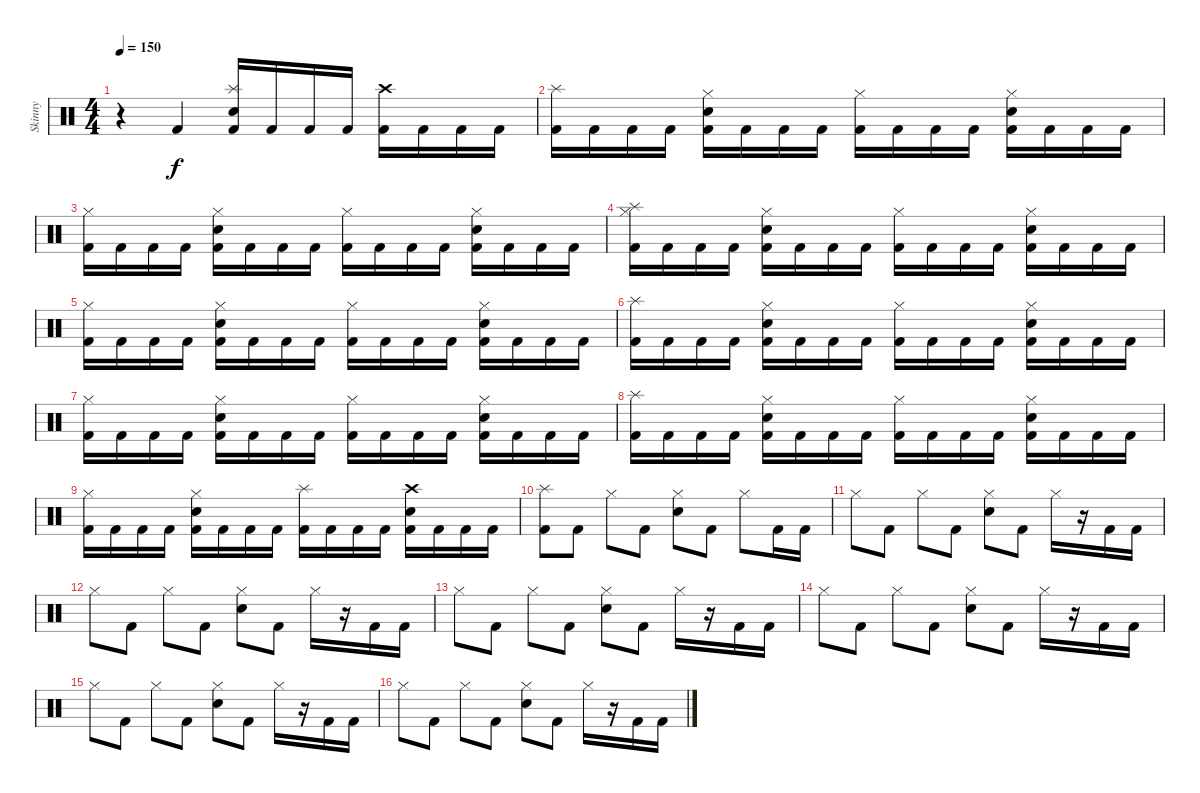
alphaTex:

\track ("Skinny" "Skinny") {instrument percussion}
\staff {score}
\articulation defaults
\ts (4 4)
\tempo 150
\clef neutral
\ks c
r.4{dy f} "Kick (hit) 2".4 ("Splash (hit)" "Electric Snare (hit)" "Kick (hit) 2").16 "Kick (hit) 2".16 "Kick (hit) 2".16 "Kick (hit) 2".16 ("Crash high (hit)" "Kick (hit) 2").16 "Kick (hit) 2".16 "Kick (hit) 2".16 "Kick (hit) 2".16 |
("Splash (hit)" "Kick (hit) 2").16 "Kick (hit) 2".16 "Kick (hit) 2".16 "Kick (hit) 2".16 ("Hi-Hat (closed)" "Electric Snare (hit)" "Kick (hit) 2").16 "Kick (hit) 2".16 "Kick (hit) 2".16 "Kick (hit) 2".16 ("Hi-Hat (closed)" "Kick (hit) 2").16 "Kick (hit) 2".16 "Kick (hit) 2".16 "Kick (hit) 2".16 ("Hi-Hat (closed)" "Electric Snare (hit)" "Kick (hit) 2").16 "Kick (hit) 2".16 "Kick (hit) 2".16 "Kick (hit) 2".16 |
("Hi-Hat (closed)" "Kick (hit) 2").16 "Kick (hit) 2".16 "Kick (hit) 2".16 "Kick (hit) 2".16 ("Hi-Hat (closed)" "Electric Snare (hit)" "Kick (hit) 2").16 "Kick (hit) 2".16 "Kick (hit) 2".16 "Kick (hit) 2".16 ("Hi-Hat (closed)" "Kick (hit) 2").16 "Kick (hit) 2".16 "Kick (hit) 2".16 "Kick (hit) 2".16 ("Hi-Hat (closed)" "Electric Snare (hit)" "Kick (hit) 2").16 "Kick (hit) 2".16 "Kick (hit) 2".16 "Kick (hit) 2".16 |
("Splash (hit)" "Hi-Hat (closed)" "Kick (hit) 2").16 "Kick (hit) 2".16 "Kick (hit) 2".16 "Kick (hit) 2".16 ("Hi-Hat (closed)" "Electric Snare (hit)" "Kick (hit) 2").16 "Kick (hit) 2".16 "Kick (hit) 2".16 "Kick (hit) 2".16 ("Hi-Hat (closed)" "Kick (hit) 2").16 "Kick (hit) 2".16 "Kick (hit) 2".16 "Kick (hit) 2".16 ("Hi-Hat (closed)" "Electric Snare (hit)" "Kick (hit) 2").16 "Kick (hit) 2".16 "Kick (hit) 2".16 "Kick (hit) 2".16 |
("Hi-Hat (closed)" "Kick (hit) 2").16 "Kick (hit) 2".16 "Kick (hit) 2".16 "Kick (hit) 2".16 ("Hi-Hat (closed)" "Electric Snare (hit)" "Kick (hit) 2").16 "Kick (hit) 2".16 "Kick (hit) 2".16 "Kick (hit) 2".16 ("Hi-Hat (closed)" "Kick (hit) 2").16 "Kick (hit) 2".16 "Kick (hit) 2".16 "Kick (hit) 2".16 ("Hi-Hat (closed)" "Electric Snare (hit)" "Kick (hit) 2").16 "Kick (hit) 2".16 "Kick (hit) 2".16 "Kick (hit) 2".16 |
("Splash (hit)" "Kick (hit) 2").16 "Kick (hit) 2".16 "Kick (hit) 2".16 "Kick (hit) 2".16 ("Hi-Hat (closed)" "Electric Snare (hit)" "Kick (hit) 2").16 "Kick (hit) 2".16 "Kick (hit) 2".16 "Kick (hit) 2".16 ("Hi-Hat (closed)" "Kick (hit) 2").16 "Kick (hit) 2".16 "Kick (hit) 2".16 "Kick (hit) 2".16 ("Hi-Hat (closed)" "Electric Snare (hit)" "Kick (hit) 2").16 "Kick (hit) 2".16 "Kick (hit) 2".16 "Kick (hit) 2".16 |
("Hi-Hat (closed)" "Kick (hit) 2").16 "Kick (hit) 2".16 "Kick (hit) 2".16 "Kick (hit) 2".16 ("Hi-Hat (closed)" "Electric Snare (hit)" "Kick (hit) 2").16 "Kick (hit) 2".16 "Kick (hit) 2".16 "Kick (hit) 2".16 ("Hi-Hat (closed)" "Kick (hit) 2").16 "Kick (hit) 2".16 "Kick (hit) 2".16 "Kick (hit) 2".16 ("Hi-Hat (closed)" "Electric Snare (hit)" "Kick (hit) 2").16 "Kick (hit) 2".16 "Kick (hit) 2".16 "Kick (hit) 2".16 |
("Splash (hit)" "Kick (hit) 2").16 "Kick (hit) 2".16 "Kick (hit) 2".16 "Kick (hit) 2".16 ("Hi-Hat (closed)" "Electric Snare (hit)" "Kick (hit) 2").16 "Kick (hit) 2".16 "Kick (hit) 2".16 "Kick (hit) 2".16 ("Hi-Hat (closed)" "Kick (hit) 2").16 "Kick (hit) 2".16 "Kick (hit) 2".16 "Kick (hit) 2".16 ("Hi-Hat (closed)" "Electric Snare (hit)" "Kick (hit) 2").16 "Kick (hit) 2".16 "Kick (hit) 2".16 "Kick (hit) 2".16 |
("Hi-Hat (closed)" "Kick (hit) 2").16 "Kick (hit) 2".16 "Kick (hit) 2".16 "Kick (hit) 2".16 ("Hi-Hat (closed)" "Electric Snare (hit)" "Kick (hit) 2").16 "Kick (hit) 2".16 "Kick (hit) 2".16 "Kick (hit) 2".16 ("Splash (hit)" "Kick (hit) 2").16 "Kick (hit) 2".16 "Kick (hit) 2".16 "Kick (hit) 2".16 ("Crash high (hit)" "Electric Snare (hit)" "Kick (hit) 2").16 "Kick (hit) 2".16 "Kick (hit) 2".16 "Kick (hit) 2".16 |
("Splash (hit)" "Kick (hit) 2").8 "Kick (hit) 2".8 "Hi-Hat (closed)".8 "Kick (hit) 2".8 ("Hi-Hat (closed)" "Electric Snare (hit)").8 "Kick (hit) 2".8 "Hi-Hat (closed)".8 "Kick (hit) 2".16 "Kick (hit) 2".16 |
"Hi-Hat (closed)".8 "Kick (hit) 2".8 "Hi-Hat (closed)".8 "Kick (hit) 2".8 ("Hi-Hat (closed)" "Electric Snare (hit)").8 "Kick (hit) 2".8 "Hi-Hat (closed)".16 r.16 "Kick (hit) 2".16 "Kick (hit) 2".16 |
"Hi-Hat (closed)".8 "Kick (hit) 2".8 "Hi-Hat (closed)".8 "Kick (hit) 2".8 ("Hi-Hat (closed)" "Electric Snare (hit)").8 "Kick (hit) 2".8 "Hi-Hat (closed)".16 r.16 "Kick (hit) 2".16 "Kick (hit) 2".16 |
"Hi-Hat (closed)".8 "Kick (hit) 2".8 "Hi-Hat (closed)".8 "Kick (hit) 2".8 ("Hi-Hat (closed)" "Electric Snare (hit)").8 "Kick (hit) 2".8 "Hi-Hat (closed)".16 r.16 "Kick (hit) 2".16 "Kick (hit) 2".16 |
"Hi-Hat (closed)".8 "Kick (hit) 2".8 "Hi-Hat (closed)".8 "Kick (hit) 2".8 ("Hi-Hat (closed)" "Electric Snare (hit)").8 "Kick (hit) 2".8 "Hi-Hat (closed)".16 r.16 "Kick (hit) 2".16 "Kick (hit) 2".16 |
"Hi-Hat (closed)".8 "Kick (hit) 2".8 "Hi-Hat (closed)".8 "Kick (hit) 2".8 ("Hi-Hat (closed)" "Electric Snare (hit)").8 "Kick (hit) 2".8 "Hi-Hat (closed)".16 r.16 "Kick (hit) 2".16 "Kick (hit) 2".16 |
"Hi-Hat (closed)".8 "Kick (hit) 2".8 "Hi-Hat (closed)".8 "Kick (hit) 2".8 ("Hi-Hat (closed)" "Electric Snare (hit)").8 "Kick (hit) 2".8 "Hi-Hat (closed)".16 r.16 "Kick (hit) 2".16 "Kick (hit) 2".16
